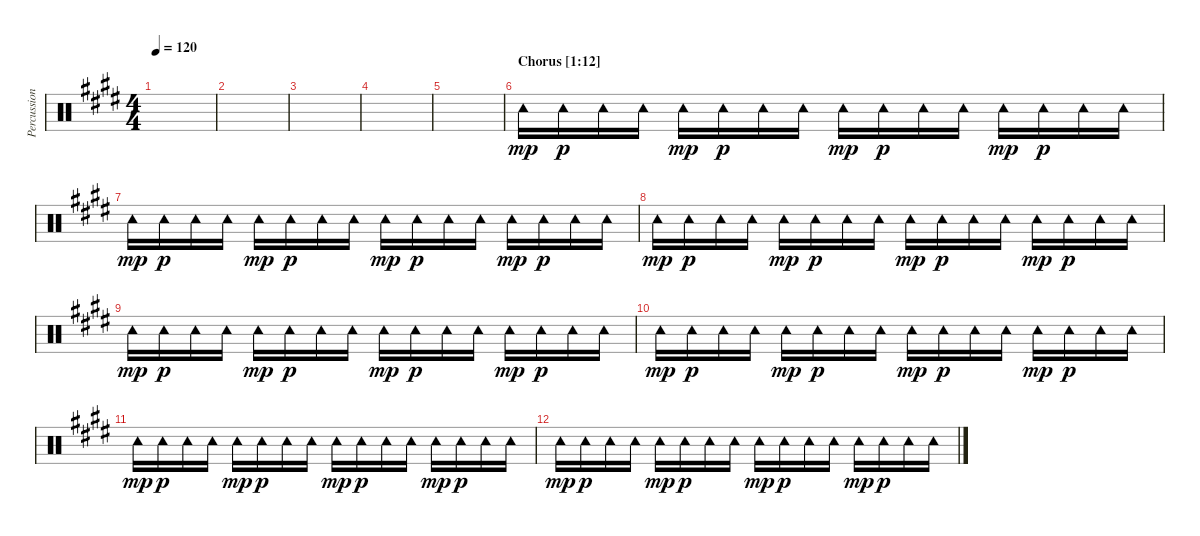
\track ("Percussion" "Percussion") {instrument percussion}
\staff {score}
\articulation defaults
\ts (4 4)
\tempo 120
\clef neutral
\ks c#minor
|
|
|
|
|
\section ("" "Chorus [1:12]")
"Tambourine (hit)".16{dy mp} "Tambourine (hit)".16{dy p} "Tambourine (hit)".16 "Tambourine (hit)".16 "Tambourine (hit)".16{dy mp} "Tambourine (hit)".16{dy p} "Tambourine (hit)".16 "Tambourine (hit)".16 "Tambourine (hit)".16{dy mp} "Tambourine (hit)".16{dy p} "Tambourine (hit)".16 "Tambourine (hit)".16 "Tambourine (hit)".16{dy mp} "Tambourine (hit)".16{dy p} "Tambourine (hit)".16 "Tambourine (hit)".16 |
"Tambourine (hit)".16{dy mp} "Tambourine (hit)".16{dy p} "Tambourine (hit)".16 "Tambourine (hit)".16 "Tambourine (hit)".16{dy mp} "Tambourine (hit)".16{dy p} "Tambourine (hit)".16 "Tambourine (hit)".16 "Tambourine (hit)".16{dy mp} "Tambourine (hit)".16{dy p} "Tambourine (hit)".16 "Tambourine (hit)".16 "Tambourine (hit)".16{dy mp} "Tambourine (hit)".16{dy p} "Tambourine (hit)".16 "Tambourine (hit)".16 |
"Tambourine (hit)".16{dy mp} "Tambourine (hit)".16{dy p} "Tambourine (hit)".16 "Tambourine (hit)".16 "Tambourine (hit)".16{dy mp} "Tambourine (hit)".16{dy p} "Tambourine (hit)".16 "Tambourine (hit)".16 "Tambourine (hit)".16{dy mp} "Tambourine (hit)".16{dy p} "Tambourine (hit)".16 "Tambourine (hit)".16 "Tambourine (hit)".16{dy mp} "Tambourine (hit)".16{dy p} "Tambourine (hit)".16 "Tambourine (hit)".16 |
"Tambourine (hit)".16{dy mp} "Tambourine (hit)".16{dy p} "Tambourine (hit)".16 "Tambourine (hit)".16 "Tambourine (hit)".16{dy mp} "Tambourine (hit)".16{dy p} "Tambourine (hit)".16 "Tambourine (hit)".16 "Tambourine (hit)".16{dy mp} "Tambourine (hit)".16{dy p} "Tambourine (hit)".16 "Tambourine (hit)".16 "Tambourine (hit)".16{dy mp} "Tambourine (hit)".16{dy p} "Tambourine (hit)".16 "Tambourine (hit)".16 |
"Tambourine (hit)".16{dy mp} "Tambourine (hit)".16{dy p} "Tambourine (hit)".16 "Tambourine (hit)".16 "Tambourine (hit)".16{dy mp} "Tambourine (hit)".16{dy p} "Tambourine (hit)".16 "Tambourine (hit)".16 "Tambourine (hit)".16{dy mp} "Tambourine (hit)".16{dy p} "Tambourine (hit)".16 "Tambourine (hit)".16 "Tambourine (hit)".16{dy mp} "Tambourine (hit)".16{dy p} "Tambourine (hit)".16 "Tambourine (hit)".16 |
"Tambourine (hit)".16{dy mp} "Tambourine (hit)".16{dy p} "Tambourine (hit)".16 "Tambourine (hit)".16 "Tambourine (hit)".16{dy mp} "Tambourine (hit)".16{dy p} "Tambourine (hit)".16 "Tambourine (hit)".16 "Tambourine (hit)".16{dy mp} "Tambourine (hit)".16{dy p} "Tambourine (hit)".16 "Tambourine (hit)".16 "Tambourine (hit)".16{dy mp} "Tambourine (hit)".16{dy p} "Tambourine (hit)".16 "Tambourine (hit)".16 |
"Tambourine (hit)".16{dy mp} "Tambourine (hit)".16{dy p} "Tambourine (hit)".16 "Tambourine (hit)".16 "Tambourine (hit)".16{dy mp} "Tambourine (hit)".16{dy p} "Tambourine (hit)".16 "Tambourine (hit)".16 "Tambourine (hit)".16{dy mp} "Tambourine (hit)".16{dy p} "Tambourine (hit)".16 "Tambourine (hit)".16 "Tambourine (hit)".16{dy mp} "Tambourine (hit)".16{dy p} "Tambourine (hit)".16 "Tambourine (hit)".16
